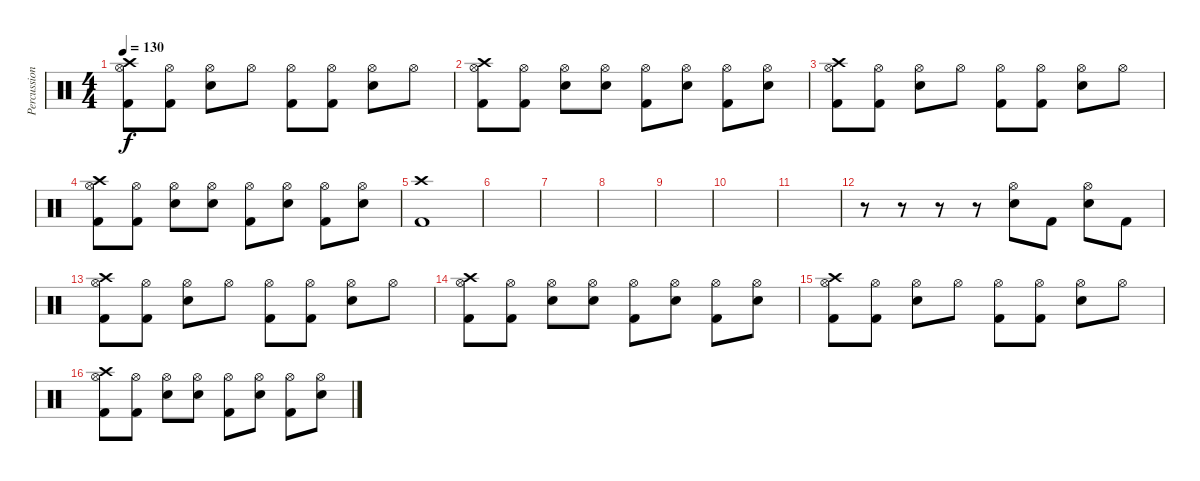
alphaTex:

\track ("Percussion" "Percussion") {instrument percussion}
\staff {score}
\articulation defaults
\ts (4 4)
\tempo 130
\clef neutral
\ks c
("Crash high (hit)" "Hi-Hat (open)" "Kick (hit) 2").8{dy f} ("Hi-Hat (open)" "Kick (hit) 2").8 ("Hi-Hat (open)" "Snare (hit) 2").8 "Hi-Hat (open)".8 ("Hi-Hat (open)" "Kick (hit) 2").8 ("Hi-Hat (open)" "Kick (hit) 2").8 ("Hi-Hat (open)" "Snare (hit) 2").8 "Hi-Hat (open)".8 |
("Crash high (hit)" "Hi-Hat (open)" "Kick (hit) 2").8 ("Hi-Hat (open)" "Kick (hit) 2").8 ("Hi-Hat (open)" "Snare (hit) 2").8 ("Hi-Hat (open)" "Snare (hit) 2").8 ("Hi-Hat (open)" "Kick (hit) 2").8 ("Hi-Hat (open)" "Snare (hit) 2").8 ("Hi-Hat (open)" "Kick (hit) 2").8 ("Hi-Hat (open)" "Snare (hit) 2").8 |
("Crash high (hit)" "Hi-Hat (open)" "Kick (hit) 2").8 ("Hi-Hat (open)" "Kick (hit) 2").8 ("Hi-Hat (open)" "Snare (hit) 2").8 "Hi-Hat (open)".8 ("Hi-Hat (open)" "Kick (hit) 2").8 ("Hi-Hat (open)" "Kick (hit) 2").8 ("Hi-Hat (open)" "Snare (hit) 2").8 "Hi-Hat (open)".8 |
("Crash high (hit)" "Hi-Hat (open)" "Kick (hit) 2").8 ("Hi-Hat (open)" "Kick (hit) 2").8 ("Hi-Hat (open)" "Snare (hit) 2").8 ("Hi-Hat (open)" "Snare (hit) 2").8 ("Hi-Hat (open)" "Kick (hit) 2").8 ("Hi-Hat (open)" "Snare (hit) 2").8 ("Hi-Hat (open)" "Kick (hit) 2").8 ("Hi-Hat (open)" "Snare (hit) 2").8 |
("Crash high (hit)" "Kick (hit) 2").1 |
|
|
|
|
|
|
r.8 r.8 r.8 r.8 ("Hi-Hat (open)" "Snare (hit) 2").8 "Kick (hit) 2".8 ("Hi-Hat (open)" "Snare (hit) 2").8 "Kick (hit) 2".8 |
("Crash high (hit)" "Hi-Hat (open)" "Kick (hit) 2").8 ("Hi-Hat (open)" "Kick (hit) 2").8 ("Hi-Hat (open)" "Snare (hit) 2").8 "Hi-Hat (open)".8 ("Hi-Hat (open)" "Kick (hit) 2").8 ("Hi-Hat (open)" "Kick (hit) 2").8 ("Hi-Hat (open)" "Snare (hit) 2").8 "Hi-Hat (open)".8 |
("Crash high (hit)" "Hi-Hat (open)" "Kick (hit) 2").8 ("Hi-Hat (open)" "Kick (hit) 2").8 ("Hi-Hat (open)" "Snare (hit) 2").8 ("Hi-Hat (open)" "Snare (hit) 2").8 ("Hi-Hat (open)" "Kick (hit) 2").8 ("Hi-Hat (open)" "Snare (hit) 2").8 ("Hi-Hat (open)" "Kick (hit) 2").8 ("Hi-Hat (open)" "Snare (hit) 2").8 |
("Crash high (hit)" "Hi-Hat (open)" "Kick (hit) 2").8 ("Hi-Hat (open)" "Kick (hit) 2").8 ("Hi-Hat (open)" "Snare (hit) 2").8 "Hi-Hat (open)".8 ("Hi-Hat (open)" "Kick (hit) 2").8 ("Hi-Hat (open)" "Kick (hit) 2").8 ("Hi-Hat (open)" "Snare (hit) 2").8 "Hi-Hat (open)".8 |
("Crash high (hit)" "Hi-Hat (open)" "Kick (hit) 2").8 ("Hi-Hat (open)" "Kick (hit) 2").8 ("Hi-Hat (open)" "Snare (hit) 2").8 ("Hi-Hat (open)" "Snare (hit) 2").8 ("Hi-Hat (open)" "Kick (hit) 2").8 ("Hi-Hat (open)" "Snare (hit) 2").8 ("Hi-Hat (open)" "Kick (hit) 2").8 ("Hi-Hat (open)" "Snare (hit) 2").8
